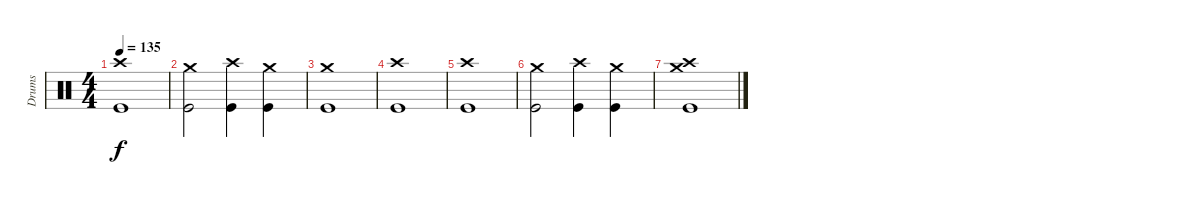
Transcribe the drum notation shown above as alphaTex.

\track ("Drums" "Drums") {instrument percussion}
\staff {score}
\articulation defaults
\ts (4 4)
\tempo 135
\clef neutral
\ks c
("Kick (hit)" "Crash high (hit)").1{dy f} |
("Kick (hit)" "Crash medium (hit)").2 ("Kick (hit)" "Crash high (hit)").4 ("Kick (hit)" "Crash medium (hit)").4 |
("Kick (hit)" "Crash medium (hit)").1 |
("Kick (hit)" "Crash high (hit)").1 |
("Kick (hit)" "Crash high (hit)").1 |
("Kick (hit)" "Crash medium (hit)").2 ("Kick (hit)" "Crash high (hit)").4 ("Kick (hit)" "Crash medium (hit)").4 |
("Kick (hit)" "Crash medium (hit)" "Crash high (hit)").1
